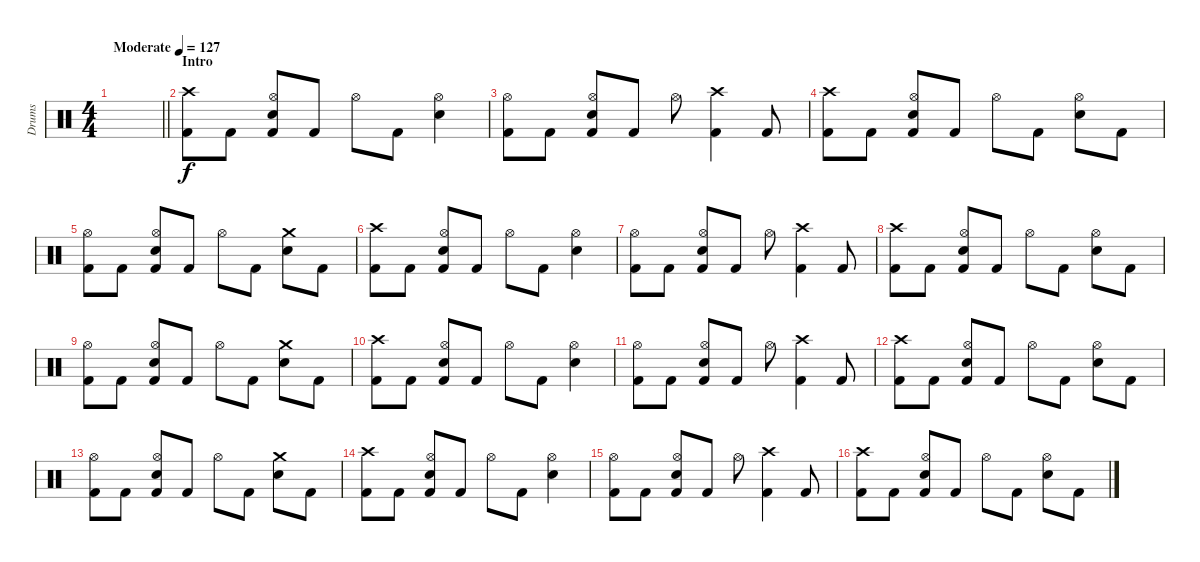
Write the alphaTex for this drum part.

\track ("Drums" "Drums") {instrument percussion}
\staff {score}
\articulation defaults
\ts (4 4)
\tempo (127 "Moderate")
\clef neutral
\barLineRight lightlight
\ks c
|
\section ("" "Intro")
("Crash high (hit)" "Kick (hit) 2").8 "Kick (hit) 2".8 ("Hi-Hat (open)" "Electric Snare (hit)" "Kick (hit) 2").8 "Kick (hit) 2".8 "Hi-Hat (open)".8 "Kick (hit) 2".8 ("Hi-Hat (open)" "Electric Snare (hit)").4 |
("Hi-Hat (open)" "Kick (hit) 2").8 "Kick (hit) 2".8 ("Hi-Hat (open)" "Electric Snare (hit)" "Kick (hit) 2").8 "Kick (hit) 2".8 "Hi-Hat (open)".8 ("Crash high (hit)" "Kick (hit) 2").4 "Kick (hit) 2".8 |
("Crash high (hit)" "Kick (hit) 2").8 "Kick (hit) 2".8 ("Hi-Hat (open)" "Electric Snare (hit)" "Kick (hit) 2").8 "Kick (hit) 2".8 "Hi-Hat (open)".8 "Kick (hit) 2".8 ("Hi-Hat (open)" "Electric Snare (hit)").8 "Kick (hit) 2".8 |
("Hi-Hat (open)" "Kick (hit) 2").8 "Kick (hit) 2".8 ("Hi-Hat (open)" "Electric Snare (hit)" "Kick (hit) 2").8 "Kick (hit) 2".8 "Hi-Hat (open)".8 "Kick (hit) 2".8 ("Crash medium (hit)" "Electric Snare (hit)").8 "Kick (hit) 2".8 |
("Crash high (hit)" "Kick (hit) 2").8 "Kick (hit) 2".8 ("Hi-Hat (open)" "Electric Snare (hit)" "Kick (hit) 2").8 "Kick (hit) 2".8 "Hi-Hat (open)".8 "Kick (hit) 2".8 ("Hi-Hat (open)" "Electric Snare (hit)").4 |
("Hi-Hat (open)" "Kick (hit) 2").8 "Kick (hit) 2".8 ("Hi-Hat (open)" "Electric Snare (hit)" "Kick (hit) 2").8 "Kick (hit) 2".8 "Hi-Hat (open)".8 ("Crash high (hit)" "Kick (hit) 2").4 "Kick (hit) 2".8 |
("Crash high (hit)" "Kick (hit) 2").8 "Kick (hit) 2".8 ("Hi-Hat (open)" "Electric Snare (hit)" "Kick (hit) 2").8 "Kick (hit) 2".8 "Hi-Hat (open)".8 "Kick (hit) 2".8 ("Hi-Hat (open)" "Electric Snare (hit)").8 "Kick (hit) 2".8 |
("Hi-Hat (open)" "Kick (hit) 2").8 "Kick (hit) 2".8 ("Hi-Hat (open)" "Electric Snare (hit)" "Kick (hit) 2").8 "Kick (hit) 2".8 "Hi-Hat (open)".8 "Kick (hit) 2".8 ("Crash medium (hit)" "Electric Snare (hit)").8 "Kick (hit) 2".8 |
("Crash high (hit)" "Kick (hit) 2").8 "Kick (hit) 2".8 ("Hi-Hat (open)" "Electric Snare (hit)" "Kick (hit) 2").8 "Kick (hit) 2".8 "Hi-Hat (open)".8 "Kick (hit) 2".8 ("Hi-Hat (open)" "Electric Snare (hit)").4 |
("Hi-Hat (open)" "Kick (hit) 2").8 "Kick (hit) 2".8 ("Hi-Hat (open)" "Electric Snare (hit)" "Kick (hit) 2").8 "Kick (hit) 2".8 "Hi-Hat (open)".8 ("Crash high (hit)" "Kick (hit) 2").4 "Kick (hit) 2".8 |
("Crash high (hit)" "Kick (hit) 2").8 "Kick (hit) 2".8 ("Hi-Hat (open)" "Electric Snare (hit)" "Kick (hit) 2").8 "Kick (hit) 2".8 "Hi-Hat (open)".8 "Kick (hit) 2".8 ("Hi-Hat (open)" "Electric Snare (hit)").8 "Kick (hit) 2".8 |
("Hi-Hat (open)" "Kick (hit) 2").8 "Kick (hit) 2".8 ("Hi-Hat (open)" "Electric Snare (hit)" "Kick (hit) 2").8 "Kick (hit) 2".8 "Hi-Hat (open)".8 "Kick (hit) 2".8 ("Crash medium (hit)" "Electric Snare (hit)").8 "Kick (hit) 2".8 |
("Crash high (hit)" "Kick (hit) 2").8 "Kick (hit) 2".8 ("Hi-Hat (open)" "Electric Snare (hit)" "Kick (hit) 2").8 "Kick (hit) 2".8 "Hi-Hat (open)".8 "Kick (hit) 2".8 ("Hi-Hat (open)" "Electric Snare (hit)").4 |
("Hi-Hat (open)" "Kick (hit) 2").8 "Kick (hit) 2".8 ("Hi-Hat (open)" "Electric Snare (hit)" "Kick (hit) 2").8 "Kick (hit) 2".8 "Hi-Hat (open)".8 ("Crash high (hit)" "Kick (hit) 2").4 "Kick (hit) 2".8 |
("Crash high (hit)" "Kick (hit) 2").8 "Kick (hit) 2".8 ("Hi-Hat (open)" "Electric Snare (hit)" "Kick (hit) 2").8 "Kick (hit) 2".8 "Hi-Hat (open)".8 "Kick (hit) 2".8 ("Hi-Hat (open)" "Electric Snare (hit)").8 "Kick (hit) 2".8
